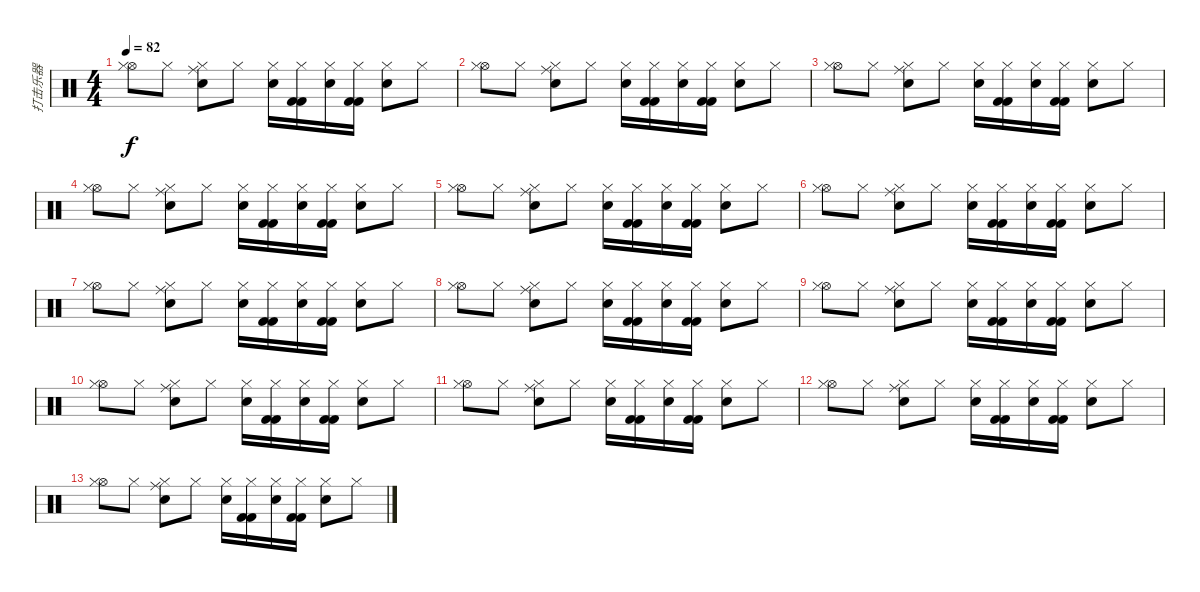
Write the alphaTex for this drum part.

\track ("打击乐器" "打击乐器") {instrument percussion}
\staff {score}
\articulation defaults
\ts (4 4)
\tempo 82
\clef neutral
\ks c
("Hi-Hat (open)" "Hi-Hat (closed)").8{dy f} "Hi-Hat (closed)".8 ("Ride (middle)" "Snare (hit) 2" "Hi-Hat (closed)").8 "Hi-Hat (closed)".8 ("Snare (hit) 2" "Hi-Hat (closed)").16 ("Kick (hit) 2" "Kick (hit) 2" "Hi-Hat (closed)").16 ("Snare (hit) 2" "Hi-Hat (closed)").16 ("Kick (hit) 2" "Kick (hit) 2" "Hi-Hat (closed)").16 ("Snare (hit) 2" "Hi-Hat (closed)").8 "Hi-Hat (closed)".8 |
("Hi-Hat (open)" "Hi-Hat (closed)").8 "Hi-Hat (closed)".8 ("Ride (middle)" "Snare (hit) 2" "Hi-Hat (closed)").8 "Hi-Hat (closed)".8 ("Snare (hit) 2" "Hi-Hat (closed)").16 ("Kick (hit) 2" "Kick (hit) 2" "Hi-Hat (closed)").16 ("Snare (hit) 2" "Hi-Hat (closed)").16 ("Kick (hit) 2" "Kick (hit) 2" "Hi-Hat (closed)").16 ("Snare (hit) 2" "Hi-Hat (closed)").8 "Hi-Hat (closed)".8 |
("Hi-Hat (open)" "Hi-Hat (closed)").8 "Hi-Hat (closed)".8 ("Ride (middle)" "Snare (hit) 2" "Hi-Hat (closed)").8 "Hi-Hat (closed)".8 ("Snare (hit) 2" "Hi-Hat (closed)").16 ("Kick (hit) 2" "Kick (hit) 2" "Hi-Hat (closed)").16 ("Snare (hit) 2" "Hi-Hat (closed)").16 ("Kick (hit) 2" "Kick (hit) 2" "Hi-Hat (closed)").16 ("Snare (hit) 2" "Hi-Hat (closed)").8 "Hi-Hat (closed)".8 |
("Hi-Hat (open)" "Hi-Hat (closed)").8 "Hi-Hat (closed)".8 ("Ride (middle)" "Snare (hit) 2" "Hi-Hat (closed)").8 "Hi-Hat (closed)".8 ("Snare (hit) 2" "Hi-Hat (closed)").16 ("Kick (hit) 2" "Kick (hit) 2" "Hi-Hat (closed)").16 ("Snare (hit) 2" "Hi-Hat (closed)").16 ("Kick (hit) 2" "Kick (hit) 2" "Hi-Hat (closed)").16 ("Snare (hit) 2" "Hi-Hat (closed)").8 "Hi-Hat (closed)".8 |
("Hi-Hat (open)" "Hi-Hat (closed)").8 "Hi-Hat (closed)".8 ("Ride (middle)" "Snare (hit) 2" "Hi-Hat (closed)").8 "Hi-Hat (closed)".8 ("Snare (hit) 2" "Hi-Hat (closed)").16 ("Kick (hit) 2" "Kick (hit) 2" "Hi-Hat (closed)").16 ("Snare (hit) 2" "Hi-Hat (closed)").16 ("Kick (hit) 2" "Kick (hit) 2" "Hi-Hat (closed)").16 ("Snare (hit) 2" "Hi-Hat (closed)").8 "Hi-Hat (closed)".8 |
("Hi-Hat (open)" "Hi-Hat (closed)").8 "Hi-Hat (closed)".8 ("Ride (middle)" "Snare (hit) 2" "Hi-Hat (closed)").8 "Hi-Hat (closed)".8 ("Snare (hit) 2" "Hi-Hat (closed)").16 ("Kick (hit) 2" "Kick (hit) 2" "Hi-Hat (closed)").16 ("Snare (hit) 2" "Hi-Hat (closed)").16 ("Kick (hit) 2" "Kick (hit) 2" "Hi-Hat (closed)").16 ("Snare (hit) 2" "Hi-Hat (closed)").8 "Hi-Hat (closed)".8 |
("Hi-Hat (open)" "Hi-Hat (closed)").8 "Hi-Hat (closed)".8 ("Ride (middle)" "Snare (hit) 2" "Hi-Hat (closed)").8 "Hi-Hat (closed)".8 ("Snare (hit) 2" "Hi-Hat (closed)").16 ("Kick (hit) 2" "Kick (hit) 2" "Hi-Hat (closed)").16 ("Snare (hit) 2" "Hi-Hat (closed)").16 ("Kick (hit) 2" "Kick (hit) 2" "Hi-Hat (closed)").16 ("Snare (hit) 2" "Hi-Hat (closed)").8 "Hi-Hat (closed)".8 |
("Hi-Hat (open)" "Hi-Hat (closed)").8 "Hi-Hat (closed)".8 ("Ride (middle)" "Snare (hit) 2" "Hi-Hat (closed)").8 "Hi-Hat (closed)".8 ("Snare (hit) 2" "Hi-Hat (closed)").16 ("Kick (hit) 2" "Kick (hit) 2" "Hi-Hat (closed)").16 ("Snare (hit) 2" "Hi-Hat (closed)").16 ("Kick (hit) 2" "Kick (hit) 2" "Hi-Hat (closed)").16 ("Snare (hit) 2" "Hi-Hat (closed)").8 "Hi-Hat (closed)".8 |
("Hi-Hat (open)" "Hi-Hat (closed)").8 "Hi-Hat (closed)".8 ("Ride (middle)" "Snare (hit) 2" "Hi-Hat (closed)").8 "Hi-Hat (closed)".8 ("Snare (hit) 2" "Hi-Hat (closed)").16 ("Kick (hit) 2" "Kick (hit) 2" "Hi-Hat (closed)").16 ("Snare (hit) 2" "Hi-Hat (closed)").16 ("Kick (hit) 2" "Kick (hit) 2" "Hi-Hat (closed)").16 ("Snare (hit) 2" "Hi-Hat (closed)").8 "Hi-Hat (closed)".8 |
("Hi-Hat (open)" "Hi-Hat (closed)").8 "Hi-Hat (closed)".8 ("Ride (middle)" "Snare (hit) 2" "Hi-Hat (closed)").8 "Hi-Hat (closed)".8 ("Snare (hit) 2" "Hi-Hat (closed)").16 ("Kick (hit) 2" "Kick (hit) 2" "Hi-Hat (closed)").16 ("Snare (hit) 2" "Hi-Hat (closed)").16 ("Kick (hit) 2" "Kick (hit) 2" "Hi-Hat (closed)").16 ("Snare (hit) 2" "Hi-Hat (closed)").8 "Hi-Hat (closed)".8 |
("Hi-Hat (open)" "Hi-Hat (closed)").8 "Hi-Hat (closed)".8 ("Ride (middle)" "Snare (hit) 2" "Hi-Hat (closed)").8 "Hi-Hat (closed)".8 ("Snare (hit) 2" "Hi-Hat (closed)").16 ("Kick (hit) 2" "Kick (hit) 2" "Hi-Hat (closed)").16 ("Snare (hit) 2" "Hi-Hat (closed)").16 ("Kick (hit) 2" "Kick (hit) 2" "Hi-Hat (closed)").16 ("Snare (hit) 2" "Hi-Hat (closed)").8 "Hi-Hat (closed)".8 |
("Hi-Hat (open)" "Hi-Hat (closed)").8 "Hi-Hat (closed)".8 ("Ride (middle)" "Snare (hit) 2" "Hi-Hat (closed)").8 "Hi-Hat (closed)".8 ("Snare (hit) 2" "Hi-Hat (closed)").16 ("Kick (hit) 2" "Kick (hit) 2" "Hi-Hat (closed)").16 ("Snare (hit) 2" "Hi-Hat (closed)").16 ("Kick (hit) 2" "Kick (hit) 2" "Hi-Hat (closed)").16 ("Snare (hit) 2" "Hi-Hat (closed)").8 "Hi-Hat (closed)".8 |
("Hi-Hat (open)" "Hi-Hat (closed)").8 "Hi-Hat (closed)".8 ("Ride (middle)" "Snare (hit) 2" "Hi-Hat (closed)").8 "Hi-Hat (closed)".8 ("Snare (hit) 2" "Hi-Hat (closed)").16 ("Kick (hit) 2" "Kick (hit) 2" "Hi-Hat (closed)").16 ("Snare (hit) 2" "Hi-Hat (closed)").16 ("Kick (hit) 2" "Kick (hit) 2" "Hi-Hat (closed)").16 ("Snare (hit) 2" "Hi-Hat (closed)").8 "Hi-Hat (closed)".8
